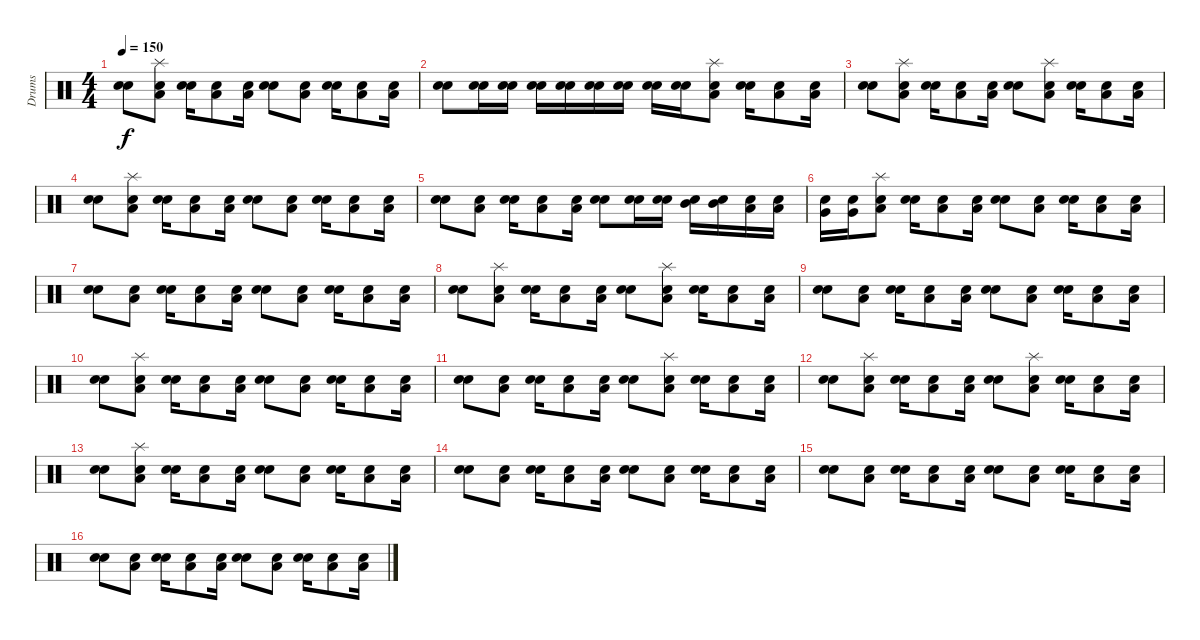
\track ("Drums" "Drums") {instrument percussion}
\staff {score}
\articulation defaults
\ts (4 4)
\tempo 150
\clef neutral
\ks c
("Snare (hit)" "Electric Snare (hit)").8{dy f} ("Snare (hit)" "Low Floor Tom (hit)" "Splash (hit)").8 ("Snare (hit)" "Electric Snare (hit)").16 ("Snare (hit)" "Low Floor Tom (hit)").8 ("Snare (hit)" "Low Floor Tom (hit)").16 ("Snare (hit)" "Electric Snare (hit)").8 ("Snare (hit)" "Low Floor Tom (hit)").8 ("Snare (hit)" "Electric Snare (hit)").16 ("Snare (hit)" "Low Floor Tom (hit)").8 ("Snare (hit)" "Low Floor Tom (hit)").16 |
("Snare (hit)" "Electric Snare (hit)").8 ("Snare (hit)" "Electric Snare (hit)").16 ("Snare (hit)" "Electric Snare (hit)").16 ("Snare (hit)" "Electric Snare (hit)").16 ("Snare (hit)" "Electric Snare (hit)").16 ("Snare (hit)" "Electric Snare (hit)").16 ("Snare (hit)" "Electric Snare (hit)").16 ("Snare (hit)" "Electric Snare (hit)").16 ("Snare (hit)" "Electric Snare (hit)").16 ("Snare (hit)" "Low Floor Tom (hit)" "Splash (hit)").8 ("Snare (hit)" "Electric Snare (hit)").16 ("Snare (hit)" "Low Floor Tom (hit)").8 ("Snare (hit)" "Low Floor Tom (hit)").16 |
("Snare (hit)" "Electric Snare (hit)").8 ("Snare (hit)" "Low Floor Tom (hit)" "Splash (hit)").8 ("Snare (hit)" "Electric Snare (hit)").16 ("Snare (hit)" "Low Floor Tom (hit)").8 ("Snare (hit)" "Low Floor Tom (hit)").16 ("Snare (hit)" "Electric Snare (hit)").8 ("Snare (hit)" "Low Floor Tom (hit)" "Splash (hit)").8 ("Snare (hit)" "Electric Snare (hit)").16 ("Snare (hit)" "Low Floor Tom (hit)").8 ("Snare (hit)" "Low Floor Tom (hit)").16 |
("Snare (hit)" "Electric Snare (hit)").8 ("Snare (hit)" "Low Floor Tom (hit)" "Splash (hit)").8 ("Snare (hit)" "Electric Snare (hit)").16 ("Snare (hit)" "Low Floor Tom (hit)").8 ("Snare (hit)" "Low Floor Tom (hit)").16 ("Snare (hit)" "Electric Snare (hit)").8 ("Snare (hit)" "Low Floor Tom (hit)").8 ("Snare (hit)" "Electric Snare (hit)").16 ("Snare (hit)" "Low Floor Tom (hit)").8 ("Snare (hit)" "Low Floor Tom (hit)").16 |
("Snare (hit)" "Electric Snare (hit)").8 ("Snare (hit)" "Low Floor Tom (hit)").8 ("Snare (hit)" "Electric Snare (hit)").16 ("Snare (hit)" "Low Floor Tom (hit)").8 ("Snare (hit)" "Low Floor Tom (hit)").16 ("Snare (hit)" "Electric Snare (hit)").8 ("Snare (hit)" "Electric Snare (hit)").16 ("Snare (hit)" "Electric Snare (hit)").16 ("Snare (hit)" "Mid Tom (hit)").16 ("Snare (hit)" "Mid Tom (hit)").16 ("Snare (hit)" "Low Tom (hit)").16 ("Snare (hit)" "Low Tom (hit)").16 |
("Snare (hit)" "Very Low Tom (hit)").16 ("Snare (hit)" "Very Low Tom (hit)").16 ("Snare (hit)" "Low Floor Tom (hit)" "Splash (hit)").8 ("Snare (hit)" "Electric Snare (hit)").16 ("Snare (hit)" "Low Floor Tom (hit)").8 ("Snare (hit)" "Low Floor Tom (hit)").16 ("Snare (hit)" "Electric Snare (hit)").8 ("Snare (hit)" "Low Floor Tom (hit)").8 ("Snare (hit)" "Electric Snare (hit)").16 ("Snare (hit)" "Low Floor Tom (hit)").8 ("Snare (hit)" "Low Floor Tom (hit)").16 |
("Snare (hit)" "Electric Snare (hit)").8 ("Snare (hit)" "Low Floor Tom (hit)").8 ("Snare (hit)" "Electric Snare (hit)").16 ("Snare (hit)" "Low Floor Tom (hit)").8 ("Snare (hit)" "Low Floor Tom (hit)").16 ("Snare (hit)" "Electric Snare (hit)").8 ("Snare (hit)" "Low Floor Tom (hit)").8 ("Snare (hit)" "Electric Snare (hit)").16 ("Snare (hit)" "Low Floor Tom (hit)").8 ("Snare (hit)" "Low Floor Tom (hit)").16 |
("Snare (hit)" "Electric Snare (hit)").8 ("Snare (hit)" "Low Floor Tom (hit)" "Splash (hit)").8 ("Snare (hit)" "Electric Snare (hit)").16 ("Snare (hit)" "Low Floor Tom (hit)").8 ("Snare (hit)" "Low Floor Tom (hit)").16 ("Snare (hit)" "Electric Snare (hit)").8 ("Snare (hit)" "Low Floor Tom (hit)" "Splash (hit)").8 ("Snare (hit)" "Electric Snare (hit)").16 ("Snare (hit)" "Low Floor Tom (hit)").8 ("Snare (hit)" "Low Floor Tom (hit)").16 |
("Snare (hit)" "Electric Snare (hit)").8 ("Snare (hit)" "Low Floor Tom (hit)").8 ("Snare (hit)" "Electric Snare (hit)").16 ("Snare (hit)" "Low Floor Tom (hit)").8 ("Snare (hit)" "Low Floor Tom (hit)").16 ("Snare (hit)" "Electric Snare (hit)").8 ("Snare (hit)" "Low Floor Tom (hit)").8 ("Snare (hit)" "Electric Snare (hit)").16 ("Snare (hit)" "Low Floor Tom (hit)").8 ("Snare (hit)" "Low Floor Tom (hit)").16 |
("Snare (hit)" "Electric Snare (hit)").8 ("Snare (hit)" "Low Floor Tom (hit)" "Splash (hit)").8 ("Snare (hit)" "Electric Snare (hit)").16 ("Snare (hit)" "Low Floor Tom (hit)").8 ("Snare (hit)" "Low Floor Tom (hit)").16 ("Snare (hit)" "Electric Snare (hit)").8 ("Snare (hit)" "Low Floor Tom (hit)").8 ("Snare (hit)" "Electric Snare (hit)").16 ("Snare (hit)" "Low Floor Tom (hit)").8 ("Snare (hit)" "Low Floor Tom (hit)").16 |
("Snare (hit)" "Electric Snare (hit)").8 ("Snare (hit)" "Low Floor Tom (hit)").8 ("Snare (hit)" "Electric Snare (hit)").16 ("Snare (hit)" "Low Floor Tom (hit)").8 ("Snare (hit)" "Low Floor Tom (hit)").16 ("Snare (hit)" "Electric Snare (hit)").8 ("Snare (hit)" "Low Floor Tom (hit)" "Splash (hit)").8 ("Snare (hit)" "Electric Snare (hit)").16 ("Snare (hit)" "Low Floor Tom (hit)").8 ("Snare (hit)" "Low Floor Tom (hit)").16 |
("Snare (hit)" "Electric Snare (hit)").8 ("Snare (hit)" "Low Floor Tom (hit)" "Splash (hit)").8 ("Snare (hit)" "Electric Snare (hit)").16 ("Snare (hit)" "Low Floor Tom (hit)").8 ("Snare (hit)" "Low Floor Tom (hit)").16 ("Snare (hit)" "Electric Snare (hit)").8 ("Snare (hit)" "Low Floor Tom (hit)" "Splash (hit)").8 ("Snare (hit)" "Electric Snare (hit)").16 ("Snare (hit)" "Low Floor Tom (hit)").8 ("Snare (hit)" "Low Floor Tom (hit)").16 |
("Snare (hit)" "Electric Snare (hit)").8 ("Snare (hit)" "Low Floor Tom (hit)" "Splash (hit)").8 ("Snare (hit)" "Electric Snare (hit)").16 ("Snare (hit)" "Low Floor Tom (hit)").8 ("Snare (hit)" "Low Floor Tom (hit)").16 ("Snare (hit)" "Electric Snare (hit)").8 ("Snare (hit)" "Low Floor Tom (hit)").8 ("Snare (hit)" "Electric Snare (hit)").16 ("Snare (hit)" "Low Floor Tom (hit)").8 ("Snare (hit)" "Low Floor Tom (hit)").16 |
("Snare (hit)" "Electric Snare (hit)").8 ("Snare (hit)" "Low Floor Tom (hit)").8 ("Snare (hit)" "Electric Snare (hit)").16 ("Snare (hit)" "Low Floor Tom (hit)").8 ("Snare (hit)" "Low Floor Tom (hit)").16 ("Snare (hit)" "Electric Snare (hit)").8 ("Snare (hit)" "Low Floor Tom (hit)").8 ("Snare (hit)" "Electric Snare (hit)").16 ("Snare (hit)" "Low Floor Tom (hit)").8 ("Snare (hit)" "Low Floor Tom (hit)").16 |
("Snare (hit)" "Electric Snare (hit)").8 ("Snare (hit)" "Low Floor Tom (hit)").8 ("Snare (hit)" "Electric Snare (hit)").16 ("Snare (hit)" "Low Floor Tom (hit)").8 ("Snare (hit)" "Low Floor Tom (hit)").16 ("Snare (hit)" "Electric Snare (hit)").8 ("Snare (hit)" "Low Floor Tom (hit)").8 ("Snare (hit)" "Electric Snare (hit)").16 ("Snare (hit)" "Low Floor Tom (hit)").8 ("Snare (hit)" "Low Floor Tom (hit)").16 |
("Snare (hit)" "Electric Snare (hit)").8 ("Snare (hit)" "Low Floor Tom (hit)").8 ("Snare (hit)" "Electric Snare (hit)").16 ("Snare (hit)" "Low Floor Tom (hit)").8 ("Snare (hit)" "Low Floor Tom (hit)").16 ("Snare (hit)" "Electric Snare (hit)").8 ("Snare (hit)" "Low Floor Tom (hit)").8 ("Snare (hit)" "Electric Snare (hit)").16 ("Snare (hit)" "Low Floor Tom (hit)").8 ("Snare (hit)" "Low Floor Tom (hit)").16
